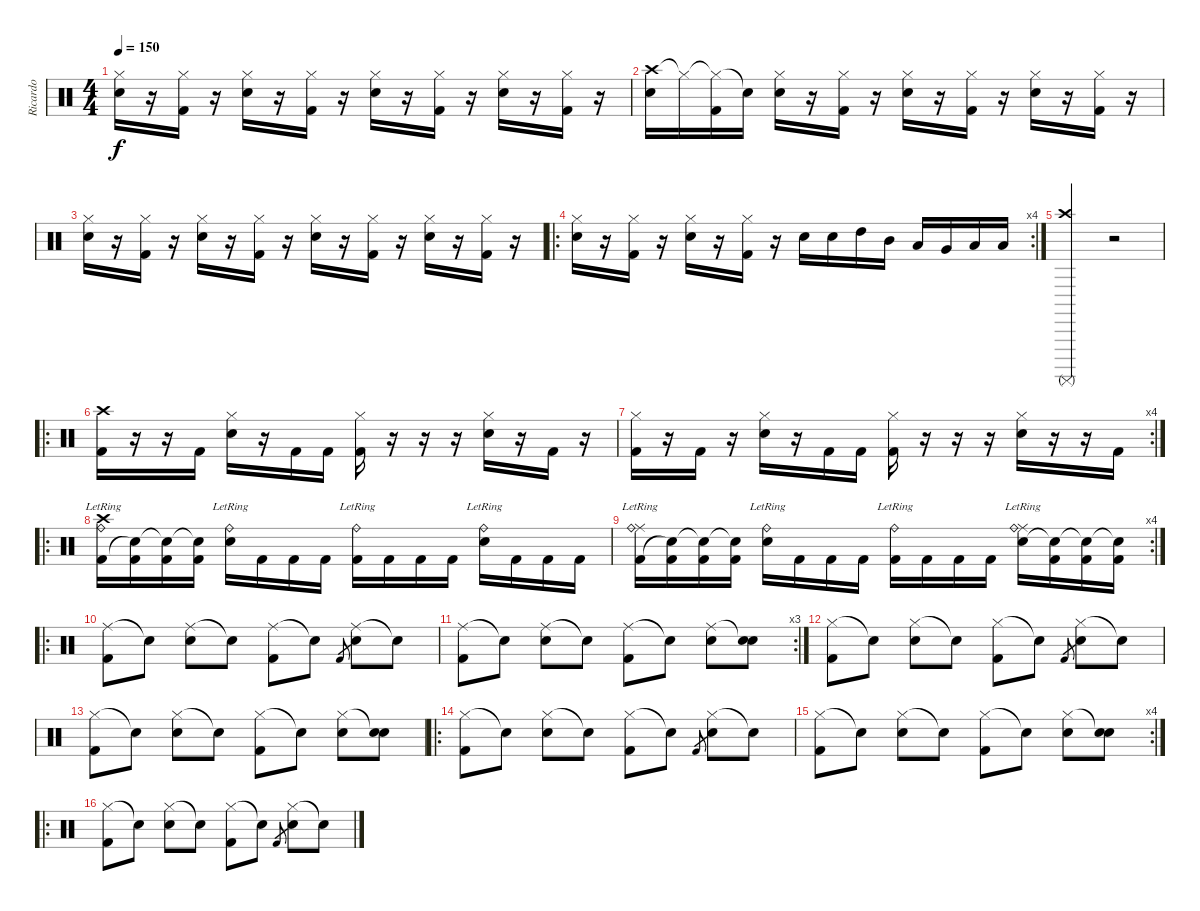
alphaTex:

\track ("Ricardo" "Ricardo") {instrument percussion}
\staff {score}
\articulation defaults
\ts (4 4)
\tempo 150
\clef neutral
\ks c
("Hi-Hat (closed)" "Snare (hit) 2").16{dy f} r.16 ("Hi-Hat (closed)" "Kick (hit) 2").16 r.16 ("Hi-Hat (closed)" "Snare (hit) 2").16 r.16 ("Hi-Hat (closed)" "Kick (hit) 2").16 r.16 ("Hi-Hat (closed)" "Snare (hit) 2").16 r.16 ("Hi-Hat (closed)" "Kick (hit) 2").16 r.16 ("Hi-Hat (closed)" "Snare (hit) 2").16 r.16 ("Hi-Hat (closed)" "Kick (hit) 2").16 r.16 |
("Crash high (hit)" "Snare (hit) 2").16 "Hi-Hat (closed)"{t}.16 ("Hi-Hat (closed)"{t} "Kick (hit) 2").16 "Snare (hit)"{t}.16 ("Hi-Hat (closed)" "Snare (hit) 2").16 r.16 ("Hi-Hat (closed)" "Kick (hit) 2").16 r.16 ("Hi-Hat (closed)" "Snare (hit) 2").16 r.16 ("Hi-Hat (closed)" "Kick (hit) 2").16 r.16 ("Hi-Hat (closed)" "Snare (hit) 2").16 r.16 ("Hi-Hat (closed)" "Kick (hit) 2").16 r.16 |
("Hi-Hat (closed)" "Snare (hit) 2").16 r.16 ("Hi-Hat (closed)" "Kick (hit) 2").16 r.16 ("Hi-Hat (closed)" "Snare (hit) 2").16 r.16 ("Hi-Hat (closed)" "Kick (hit) 2").16 r.16 ("Hi-Hat (closed)" "Snare (hit) 2").16 r.16 ("Hi-Hat (closed)" "Kick (hit) 2").16 r.16 ("Hi-Hat (closed)" "Snare (hit) 2").16 r.16 ("Hi-Hat (closed)" "Kick (hit) 2").16 r.16 |
\ro
\rc 4
("Hi-Hat (closed)" "Snare (hit) 2").16 r.16 ("Hi-Hat (closed)" "Kick (hit) 2").16 r.16 ("Hi-Hat (closed)" "Snare (hit) 2").16 r.16 ("Hi-Hat (closed)" "Kick (hit) 2").16 r.16 "Snare (hit) 2".16 "Snare (hit) 2".16 "High Tom (hit)".16 "Mid Tom (hit)".16 "Low Tom (hit)".16 "Very Low Tom (hit)".16 "Low Floor Tom (hit)".16 "Low Floor Tom (hit)".16 |
("Surdo (mute)" "Crash high (hit)").2 r.2 |
\ro
("Crash high (hit)" "Kick (hit) 2").16 r.16 r.16 "Kick (hit) 2".16 ("Hi-Hat (closed)" "Snare (hit) 2").16 r.16 "Kick (hit) 2".16 "Kick (hit) 2".16 ("Hi-Hat (closed)" "Kick (hit) 2").16 r.16 r.16 r.16 ("Hi-Hat (closed)" "Snare (hit) 2").16 r.16 "Kick (hit) 2".16 r.16 |
\rc 4
("Hi-Hat (closed)" "Kick (hit) 2").16 r.16 "Kick (hit) 2".16 r.16 ("Hi-Hat (closed)" "Snare (hit) 2").16 r.16 "Kick (hit) 2".16 "Kick (hit) 2".16 ("Hi-Hat (closed)" "Kick (hit) 2").16 r.16 r.16 r.16 ("Hi-Hat (closed)" "Snare (hit) 2").16 r.16 r.16 "Kick (hit) 2".16 |
\ro
("Crash high (hit)"{lr} "Kick (hit) 2" "Ride (bell)").16 ("Kick (hit) 2" "Snare (hit)"{t}).16 ("Kick (hit) 2" "Snare (hit)"{t}).16 ("Kick (hit) 2" "Snare (hit)"{t}).16 ("Ride (bell)"{lr} "Snare (hit) 2").16 "Kick (hit) 2".16 "Kick (hit) 2".16 "Kick (hit) 2".16 ("Ride (bell)"{lr} "Kick (hit) 2").16 "Kick (hit) 2".16 "Kick (hit) 2".16 "Kick (hit) 2".16 ("Ride (bell)"{lr} "Snare (hit) 2").16 "Kick (hit) 2".16 "Kick (hit) 2".16 "Kick (hit) 2".16 |
\rc 4
("Ride (middle)"{lr} "Kick (hit) 2" "Ride (bell)").16 ("Kick (hit) 2" "Snare (hit)"{t}).16 ("Kick (hit) 2" "Snare (hit)"{t}).16 ("Kick (hit) 2" "Snare (hit)"{t}).16 ("Ride (bell)"{lr} "Snare (hit) 2").16 "Kick (hit) 2".16 "Kick (hit) 2".16 "Kick (hit) 2".16 ("Ride (bell)"{lr} "Kick (hit) 2").16 "Kick (hit) 2".16 "Kick (hit) 2".16 "Kick (hit) 2".16 ("Ride (middle)"{lr} "Snare (hit) 2" "Ride (bell)").16 ("Kick (hit) 2" "Snare (hit)"{t}).16 ("Kick (hit) 2" "Snare (hit)"{t}).16 ("Kick (hit) 2" "Snare (hit)"{t}).16 |
\ro
("Ride (middle)" "Kick (hit) 2").8 "Snare (hit)"{t}.8 ("Ride (middle)" "Snare (hit) 2").8 "Snare (hit)"{t}.8 ("Ride (middle)" "Kick (hit) 2").8 "Snare (hit)"{t}.8 "Kick (hit) 2".8{gr} ("Ride (middle)" "Snare (hit) 2").8 "Snare (hit)"{t}.8 |
\rc 3
("Ride (middle)" "Kick (hit) 2").8 "Snare (hit)"{t}.8 ("Ride (middle)" "Snare (hit) 2").8 "Snare (hit)"{t}.8 ("Ride (middle)" "Kick (hit) 2").8 "Snare (hit)"{t}.8 ("Ride (middle)" "Snare (hit) 2").8 ("Snare (hit)"{t} "Snare (hit) 2").8 |
("Hi-Hat (closed)" "Kick (hit) 2").8 "Snare (hit)"{t}.8 ("Hi-Hat (closed)" "Snare (hit) 2").8 "Snare (hit)"{t}.8 ("Hi-Hat (closed)" "Kick (hit) 2").8 "Snare (hit)"{t}.8 "Kick (hit) 2".8{gr} ("Hi-Hat (closed)" "Snare (hit) 2").8 "Snare (hit)"{t}.8 |
("Hi-Hat (closed)" "Kick (hit) 2").8 "Snare (hit)"{t}.8 ("Hi-Hat (closed)" "Snare (hit) 2").8 "Snare (hit)"{t}.8 ("Hi-Hat (closed)" "Kick (hit) 2").8 "Snare (hit)"{t}.8 ("Hi-Hat (closed)" "Snare (hit) 2").8 ("Snare (hit)"{t} "Snare (hit) 2").8 |
\ro
("Hi-Hat (closed)" "Kick (hit) 2").8 "Snare (hit)"{t}.8 ("Hi-Hat (closed)" "Snare (hit) 2").8 "Snare (hit)"{t}.8 ("Hi-Hat (closed)" "Kick (hit) 2").8 "Snare (hit)"{t}.8 "Kick (hit) 2".8{gr} ("Hi-Hat (closed)" "Snare (hit) 2").8 "Snare (hit)"{t}.8 |
\rc 4
("Hi-Hat (closed)" "Kick (hit) 2").8 "Snare (hit)"{t}.8 ("Hi-Hat (closed)" "Snare (hit) 2").8 "Snare (hit)"{t}.8 ("Hi-Hat (closed)" "Kick (hit) 2").8 "Snare (hit)"{t}.8 ("Hi-Hat (closed)" "Snare (hit) 2").8 ("Snare (hit)"{t} "Snare (hit) 2").8 |
\ro
("Hi-Hat (closed)" "Kick (hit) 2").8 "Snare (hit)"{t}.8 ("Hi-Hat (closed)" "Snare (hit) 2").8 "Snare (hit)"{t}.8 ("Hi-Hat (closed)" "Kick (hit) 2").8 "Snare (hit)"{t}.8 "Kick (hit) 2".8{gr} ("Hi-Hat (closed)" "Snare (hit) 2").8 "Snare (hit)"{t}.8
